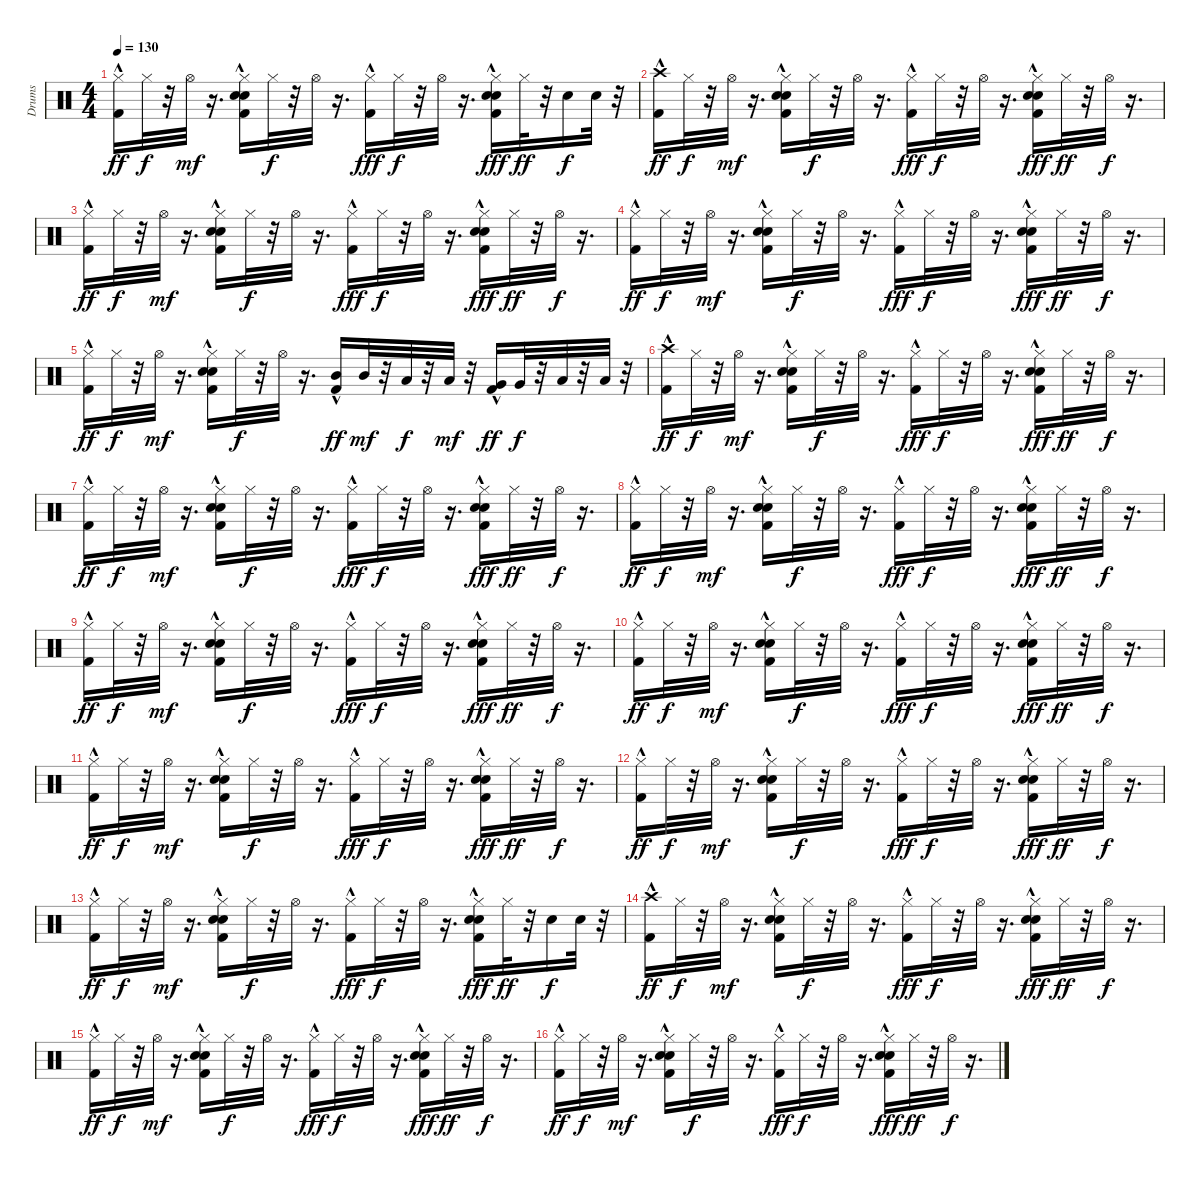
\track ("Drums" "Drums") {instrument percussion}
\staff {score}
\articulation defaults
\ts (4 4)
\tempo 130
\clef neutral
\ks c
("Kick (hit) 2"{hac} "Hi-Hat (closed)").16{dy ff} "Hi-Hat (closed)".32{dy f} r.32 "Hi-Hat (open)".32{dy mf} r.16{d} ("Kick (hit) 2"{hac} "Hand Clap (hit)" "Electric Snare (hit)" "Hi-Hat (closed)").16 "Hi-Hat (closed)".32{dy f} r.32 "Hi-Hat (open)".32 r.16{d} ("Kick (hit) 2"{hac} "Hi-Hat (closed)").16{dy fff} "Hi-Hat (closed)".32{dy f} r.32 "Hi-Hat (open)".32 r.16{d} ("Kick (hit) 2"{hac} "Hand Clap (hit)" "Electric Snare (hit)" "Hi-Hat (closed)").16{dy fff} "Hi-Hat (closed)".32{dy ff} r.32 "Electric Snare (hit)".16{dy f} "Electric Snare (hit)".32 r.32 |
("Kick (hit) 2"{hac} "Crash high (hit)").16{dy ff} "Hi-Hat (closed)".32{dy f} r.32 "Hi-Hat (open)".32{dy mf} r.16{d} ("Kick (hit) 2"{hac} "Hand Clap (hit)" "Electric Snare (hit)" "Hi-Hat (closed)").16 "Hi-Hat (closed)".32{dy f} r.32 "Hi-Hat (open)".32 r.16{d} ("Kick (hit) 2"{hac} "Hi-Hat (closed)").16{dy fff} "Hi-Hat (closed)".32{dy f} r.32 "Hi-Hat (open)".32 r.16{d} ("Kick (hit) 2"{hac} "Hand Clap (hit)" "Electric Snare (hit)" "Hi-Hat (closed)").16{dy fff} "Hi-Hat (closed)".32{dy ff} r.32 "Hi-Hat (open)".32{dy f} r.16{d} |
("Kick (hit) 2"{hac} "Hi-Hat (closed)").16{dy ff} "Hi-Hat (closed)".32{dy f} r.32 "Hi-Hat (open)".32{dy mf} r.16{d} ("Kick (hit) 2"{hac} "Hand Clap (hit)" "Electric Snare (hit)" "Hi-Hat (closed)").16 "Hi-Hat (closed)".32{dy f} r.32 "Hi-Hat (open)".32 r.16{d} ("Kick (hit) 2"{hac} "Hi-Hat (closed)").16{dy fff} "Hi-Hat (closed)".32{dy f} r.32 "Hi-Hat (open)".32 r.16{d} ("Kick (hit) 2"{hac} "Hand Clap (hit)" "Electric Snare (hit)" "Hi-Hat (closed)").16{dy fff} "Hi-Hat (closed)".32{dy ff} r.32 "Hi-Hat (open)".32{dy f} r.16{d} |
("Kick (hit) 2"{hac} "Hi-Hat (closed)").16{dy ff} "Hi-Hat (closed)".32{dy f} r.32 "Hi-Hat (open)".32{dy mf} r.16{d} ("Kick (hit) 2"{hac} "Hand Clap (hit)" "Electric Snare (hit)" "Hi-Hat (closed)").16 "Hi-Hat (closed)".32{dy f} r.32 "Hi-Hat (open)".32 r.16{d} ("Kick (hit) 2"{hac} "Hi-Hat (closed)").16{dy fff} "Hi-Hat (closed)".32{dy f} r.32 "Hi-Hat (open)".32 r.16{d} ("Kick (hit) 2"{hac} "Hand Clap (hit)" "Electric Snare (hit)" "Hi-Hat (closed)").16{dy fff} "Hi-Hat (closed)".32{dy ff} r.32 "Hi-Hat (open)".32{dy f} r.16{d} |
("Kick (hit) 2"{hac} "Hi-Hat (closed)").16{dy ff} "Hi-Hat (closed)".32{dy f} r.32 "Hi-Hat (open)".32{dy mf} r.16{d} ("Kick (hit) 2"{hac} "Hand Clap (hit)" "Electric Snare (hit)" "Hi-Hat (closed)").16 "Hi-Hat (closed)".32{dy f} r.32 "Hi-Hat (open)".32 r.16{d} ("Kick (hit) 2"{hac} "Mid Tom (hit)").16{dy ff} "Mid Tom (hit)".32{dy mf} r.32 "Low Tom (hit)".32{dy f} r.32 "Low Tom (hit)".32{dy mf} r.32 ("Kick (hit) 2"{hac} "Very Low Tom (hit)").16{dy ff} "Very Low Tom (hit)".32{dy f} r.32 "Low Floor Tom (hit)".32 r.32 "Low Floor Tom (hit)".32 r.32 |
("Kick (hit) 2"{hac} "Crash high (hit)").16{dy ff} "Hi-Hat (closed)".32{dy f} r.32 "Hi-Hat (open)".32{dy mf} r.16{d} ("Kick (hit) 2"{hac} "Hand Clap (hit)" "Electric Snare (hit)" "Hi-Hat (closed)").16 "Hi-Hat (closed)".32{dy f} r.32 "Hi-Hat (open)".32 r.16{d} ("Kick (hit) 2"{hac} "Hi-Hat (closed)").16{dy fff} "Hi-Hat (closed)".32{dy f} r.32 "Hi-Hat (open)".32 r.16{d} ("Kick (hit) 2"{hac} "Hand Clap (hit)" "Electric Snare (hit)" "Hi-Hat (closed)").16{dy fff} "Hi-Hat (closed)".32{dy ff} r.32 "Hi-Hat (open)".32{dy f} r.16{d} |
("Kick (hit) 2"{hac} "Hi-Hat (closed)").16{dy ff} "Hi-Hat (closed)".32{dy f} r.32 "Hi-Hat (open)".32{dy mf} r.16{d} ("Kick (hit) 2"{hac} "Hand Clap (hit)" "Electric Snare (hit)" "Hi-Hat (closed)").16 "Hi-Hat (closed)".32{dy f} r.32 "Hi-Hat (open)".32 r.16{d} ("Kick (hit) 2"{hac} "Hi-Hat (closed)").16{dy fff} "Hi-Hat (closed)".32{dy f} r.32 "Hi-Hat (open)".32 r.16{d} ("Kick (hit) 2"{hac} "Hand Clap (hit)" "Electric Snare (hit)" "Hi-Hat (closed)").16{dy fff} "Hi-Hat (closed)".32{dy ff} r.32 "Hi-Hat (open)".32{dy f} r.16{d} |
("Kick (hit) 2"{hac} "Hi-Hat (closed)").16{dy ff} "Hi-Hat (closed)".32{dy f} r.32 "Hi-Hat (open)".32{dy mf} r.16{d} ("Kick (hit) 2"{hac} "Hand Clap (hit)" "Electric Snare (hit)" "Hi-Hat (closed)").16 "Hi-Hat (closed)".32{dy f} r.32 "Hi-Hat (open)".32 r.16{d} ("Kick (hit) 2"{hac} "Hi-Hat (closed)").16{dy fff} "Hi-Hat (closed)".32{dy f} r.32 "Hi-Hat (open)".32 r.16{d} ("Kick (hit) 2"{hac} "Hand Clap (hit)" "Electric Snare (hit)" "Hi-Hat (closed)").16{dy fff} "Hi-Hat (closed)".32{dy ff} r.32 "Hi-Hat (open)".32{dy f} r.16{d} |
("Kick (hit) 2"{hac} "Hi-Hat (closed)").16{dy ff} "Hi-Hat (closed)".32{dy f} r.32 "Hi-Hat (open)".32{dy mf} r.16{d} ("Kick (hit) 2"{hac} "Hand Clap (hit)" "Electric Snare (hit)" "Hi-Hat (closed)").16 "Hi-Hat (closed)".32{dy f} r.32 "Hi-Hat (open)".32 r.16{d} ("Kick (hit) 2"{hac} "Hi-Hat (closed)").16{dy fff} "Hi-Hat (closed)".32{dy f} r.32 "Hi-Hat (open)".32 r.16{d} ("Kick (hit) 2"{hac} "Hand Clap (hit)" "Electric Snare (hit)" "Hi-Hat (closed)").16{dy fff} "Hi-Hat (closed)".32{dy ff} r.32 "Hi-Hat (open)".32{dy f} r.16{d} |
("Kick (hit) 2"{hac} "Hi-Hat (closed)").16{dy ff} "Hi-Hat (closed)".32{dy f} r.32 "Hi-Hat (open)".32{dy mf} r.16{d} ("Kick (hit) 2"{hac} "Hand Clap (hit)" "Electric Snare (hit)" "Hi-Hat (closed)").16 "Hi-Hat (closed)".32{dy f} r.32 "Hi-Hat (open)".32 r.16{d} ("Kick (hit) 2"{hac} "Hi-Hat (closed)").16{dy fff} "Hi-Hat (closed)".32{dy f} r.32 "Hi-Hat (open)".32 r.16{d} ("Kick (hit) 2"{hac} "Hand Clap (hit)" "Electric Snare (hit)" "Hi-Hat (closed)").16{dy fff} "Hi-Hat (closed)".32{dy ff} r.32 "Hi-Hat (open)".32{dy f} r.16{d} |
("Kick (hit) 2"{hac} "Hi-Hat (closed)").16{dy ff} "Hi-Hat (closed)".32{dy f} r.32 "Hi-Hat (open)".32{dy mf} r.16{d} ("Kick (hit) 2"{hac} "Hand Clap (hit)" "Electric Snare (hit)" "Hi-Hat (closed)").16 "Hi-Hat (closed)".32{dy f} r.32 "Hi-Hat (open)".32 r.16{d} ("Kick (hit) 2"{hac} "Hi-Hat (closed)").16{dy fff} "Hi-Hat (closed)".32{dy f} r.32 "Hi-Hat (open)".32 r.16{d} ("Kick (hit) 2"{hac} "Hand Clap (hit)" "Electric Snare (hit)" "Hi-Hat (closed)").16{dy fff} "Hi-Hat (closed)".32{dy ff} r.32 "Hi-Hat (open)".32{dy f} r.16{d} |
("Kick (hit) 2"{hac} "Hi-Hat (closed)").16{dy ff} "Hi-Hat (closed)".32{dy f} r.32 "Hi-Hat (open)".32{dy mf} r.16{d} ("Kick (hit) 2"{hac} "Hand Clap (hit)" "Electric Snare (hit)" "Hi-Hat (closed)").16 "Hi-Hat (closed)".32{dy f} r.32 "Hi-Hat (open)".32 r.16{d} ("Kick (hit) 2"{hac} "Hi-Hat (closed)").16{dy fff} "Hi-Hat (closed)".32{dy f} r.32 "Hi-Hat (open)".32 r.16{d} ("Kick (hit) 2"{hac} "Hand Clap (hit)" "Electric Snare (hit)" "Hi-Hat (closed)").16{dy fff} "Hi-Hat (closed)".32{dy ff} r.32 "Hi-Hat (open)".32{dy f} r.16{d} |
("Kick (hit) 2"{hac} "Hi-Hat (closed)").16{dy ff} "Hi-Hat (closed)".32{dy f} r.32 "Hi-Hat (open)".32{dy mf} r.16{d} ("Kick (hit) 2"{hac} "Hand Clap (hit)" "Electric Snare (hit)" "Hi-Hat (closed)").16 "Hi-Hat (closed)".32{dy f} r.32 "Hi-Hat (open)".32 r.16{d} ("Kick (hit) 2"{hac} "Hi-Hat (closed)").16{dy fff} "Hi-Hat (closed)".32{dy f} r.32 "Hi-Hat (open)".32 r.16{d} ("Kick (hit) 2"{hac} "Hand Clap (hit)" "Electric Snare (hit)" "Hi-Hat (closed)").16{dy fff} "Hi-Hat (closed)".32{dy ff} r.32 "Electric Snare (hit)".16{dy f} "Electric Snare (hit)".32 r.32 |
("Kick (hit) 2"{hac} "Crash high (hit)").16{dy ff} "Hi-Hat (closed)".32{dy f} r.32 "Hi-Hat (open)".32{dy mf} r.16{d} ("Kick (hit) 2"{hac} "Hand Clap (hit)" "Electric Snare (hit)" "Hi-Hat (closed)").16 "Hi-Hat (closed)".32{dy f} r.32 "Hi-Hat (open)".32 r.16{d} ("Kick (hit) 2"{hac} "Hi-Hat (closed)").16{dy fff} "Hi-Hat (closed)".32{dy f} r.32 "Hi-Hat (open)".32 r.16{d} ("Kick (hit) 2"{hac} "Hand Clap (hit)" "Electric Snare (hit)" "Hi-Hat (closed)").16{dy fff} "Hi-Hat (closed)".32{dy ff} r.32 "Hi-Hat (open)".32{dy f} r.16{d} |
("Kick (hit) 2"{hac} "Hi-Hat (closed)").16{dy ff} "Hi-Hat (closed)".32{dy f} r.32 "Hi-Hat (open)".32{dy mf} r.16{d} ("Kick (hit) 2"{hac} "Hand Clap (hit)" "Electric Snare (hit)" "Hi-Hat (closed)").16 "Hi-Hat (closed)".32{dy f} r.32 "Hi-Hat (open)".32 r.16{d} ("Kick (hit) 2"{hac} "Hi-Hat (closed)").16{dy fff} "Hi-Hat (closed)".32{dy f} r.32 "Hi-Hat (open)".32 r.16{d} ("Kick (hit) 2"{hac} "Hand Clap (hit)" "Electric Snare (hit)" "Hi-Hat (closed)").16{dy fff} "Hi-Hat (closed)".32{dy ff} r.32 "Hi-Hat (open)".32{dy f} r.16{d} |
("Kick (hit) 2"{hac} "Hi-Hat (closed)").16{dy ff} "Hi-Hat (closed)".32{dy f} r.32 "Hi-Hat (open)".32{dy mf} r.16{d} ("Kick (hit) 2"{hac} "Hand Clap (hit)" "Electric Snare (hit)" "Hi-Hat (closed)").16 "Hi-Hat (closed)".32{dy f} r.32 "Hi-Hat (open)".32 r.16{d} ("Kick (hit) 2"{hac} "Hi-Hat (closed)").16{dy fff} "Hi-Hat (closed)".32{dy f} r.32 "Hi-Hat (open)".32 r.16{d} ("Kick (hit) 2"{hac} "Hand Clap (hit)" "Electric Snare (hit)" "Hi-Hat (closed)").16{dy fff} "Hi-Hat (closed)".32{dy ff} r.32 "Hi-Hat (open)".32{dy f} r.16{d}
